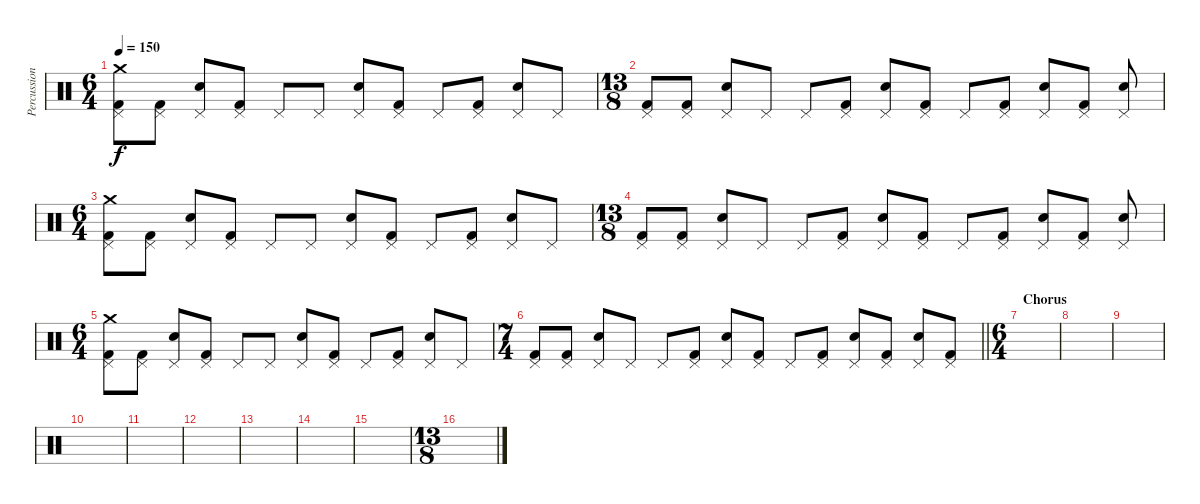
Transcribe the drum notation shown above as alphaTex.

\track ("Percussion" "Percussion") {instrument percussion}
\staff {score}
\articulation defaults
\ts (6 4)
\tempo 150
\clef neutral
\ks c
("Crash medium (hit)" "Pedal Hi-Hat (hit)" "Kick (hit) 2").8{dy f} ("Pedal Hi-Hat (hit)" "Kick (hit) 2").8 ("Pedal Hi-Hat (hit)" "Electric Snare (hit)").8 ("Pedal Hi-Hat (hit)" "Kick (hit) 2").8 "Pedal Hi-Hat (hit)".8 "Pedal Hi-Hat (hit)".8 ("Pedal Hi-Hat (hit)" "Electric Snare (hit)").8 ("Pedal Hi-Hat (hit)" "Kick (hit) 2").8 "Pedal Hi-Hat (hit)".8 ("Pedal Hi-Hat (hit)" "Kick (hit) 2").8 ("Pedal Hi-Hat (hit)" "Electric Snare (hit)").8 "Pedal Hi-Hat (hit)".8 |
\ts (13 8)
("Pedal Hi-Hat (hit)" "Kick (hit) 2").8 ("Pedal Hi-Hat (hit)" "Kick (hit) 2").8 ("Pedal Hi-Hat (hit)" "Electric Snare (hit)").8 "Pedal Hi-Hat (hit)".8 "Pedal Hi-Hat (hit)".8 ("Pedal Hi-Hat (hit)" "Kick (hit) 2").8 ("Pedal Hi-Hat (hit)" "Electric Snare (hit)").8 ("Pedal Hi-Hat (hit)" "Kick (hit) 2").8 "Pedal Hi-Hat (hit)".8 ("Pedal Hi-Hat (hit)" "Kick (hit) 2").8 ("Pedal Hi-Hat (hit)" "Electric Snare (hit)").8 ("Pedal Hi-Hat (hit)" "Kick (hit) 2").8 ("Pedal Hi-Hat (hit)" "Electric Snare (hit)").8 |
\ts (6 4)
("Crash medium (hit)" "Pedal Hi-Hat (hit)" "Kick (hit) 2").8 ("Pedal Hi-Hat (hit)" "Kick (hit) 2").8 ("Pedal Hi-Hat (hit)" "Electric Snare (hit)").8 ("Pedal Hi-Hat (hit)" "Kick (hit) 2").8 "Pedal Hi-Hat (hit)".8 "Pedal Hi-Hat (hit)".8 ("Pedal Hi-Hat (hit)" "Electric Snare (hit)").8 ("Pedal Hi-Hat (hit)" "Kick (hit) 2").8 "Pedal Hi-Hat (hit)".8 ("Pedal Hi-Hat (hit)" "Kick (hit) 2").8 ("Pedal Hi-Hat (hit)" "Electric Snare (hit)").8 "Pedal Hi-Hat (hit)".8 |
\ts (13 8)
("Pedal Hi-Hat (hit)" "Kick (hit) 2").8 ("Pedal Hi-Hat (hit)" "Kick (hit) 2").8 ("Pedal Hi-Hat (hit)" "Electric Snare (hit)").8 "Pedal Hi-Hat (hit)".8 "Pedal Hi-Hat (hit)".8 ("Pedal Hi-Hat (hit)" "Kick (hit) 2").8 ("Pedal Hi-Hat (hit)" "Electric Snare (hit)").8 ("Pedal Hi-Hat (hit)" "Kick (hit) 2").8 "Pedal Hi-Hat (hit)".8 ("Pedal Hi-Hat (hit)" "Kick (hit) 2").8 ("Pedal Hi-Hat (hit)" "Electric Snare (hit)").8 ("Pedal Hi-Hat (hit)" "Kick (hit) 2").8 ("Pedal Hi-Hat (hit)" "Electric Snare (hit)").8 |
\ts (6 4)
("Crash medium (hit)" "Pedal Hi-Hat (hit)" "Kick (hit) 2").8 ("Pedal Hi-Hat (hit)" "Kick (hit) 2").8 ("Pedal Hi-Hat (hit)" "Electric Snare (hit)").8 ("Pedal Hi-Hat (hit)" "Kick (hit) 2").8 "Pedal Hi-Hat (hit)".8 "Pedal Hi-Hat (hit)".8 ("Pedal Hi-Hat (hit)" "Electric Snare (hit)").8 ("Pedal Hi-Hat (hit)" "Kick (hit) 2").8 "Pedal Hi-Hat (hit)".8 ("Pedal Hi-Hat (hit)" "Kick (hit) 2").8 ("Pedal Hi-Hat (hit)" "Electric Snare (hit)").8 "Pedal Hi-Hat (hit)".8 |
\ts (7 4)
\barLineRight lightlight
("Pedal Hi-Hat (hit)" "Kick (hit) 2").8 ("Pedal Hi-Hat (hit)" "Kick (hit) 2").8 ("Pedal Hi-Hat (hit)" "Electric Snare (hit)").8 "Pedal Hi-Hat (hit)".8 "Pedal Hi-Hat (hit)".8 ("Pedal Hi-Hat (hit)" "Kick (hit) 2").8 ("Pedal Hi-Hat (hit)" "Electric Snare (hit)").8 ("Pedal Hi-Hat (hit)" "Kick (hit) 2").8 "Pedal Hi-Hat (hit)".8 ("Pedal Hi-Hat (hit)" "Kick (hit) 2").8 ("Pedal Hi-Hat (hit)" "Electric Snare (hit)").8 ("Pedal Hi-Hat (hit)" "Kick (hit) 2").8 ("Pedal Hi-Hat (hit)" "Electric Snare (hit)").8 ("Pedal Hi-Hat (hit)" "Kick (hit) 2").8 |
\ts (6 4)
\section ("" "Chorus")
|
|
|
|
|
|
|
|
|
\ts (13 8)
